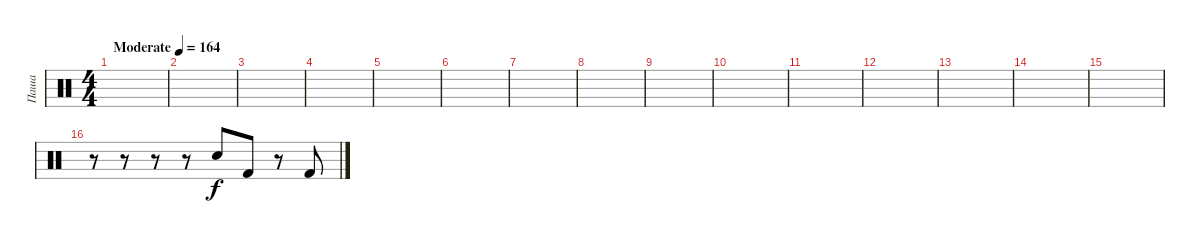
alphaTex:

\track ("Паша" "Паша") {instrument percussion}
\staff {score}
\articulation defaults
\ts (4 4)
\tempo (164 "Moderate")
\clef neutral
\ks c
|
|
|
|
|
|
|
|
|
|
|
|
|
|
|
r.8 r.8 r.8 r.8 "Electric Snare (hit)".8 "Kick (hit) 2".8 r.8 "Kick (hit) 2".8
